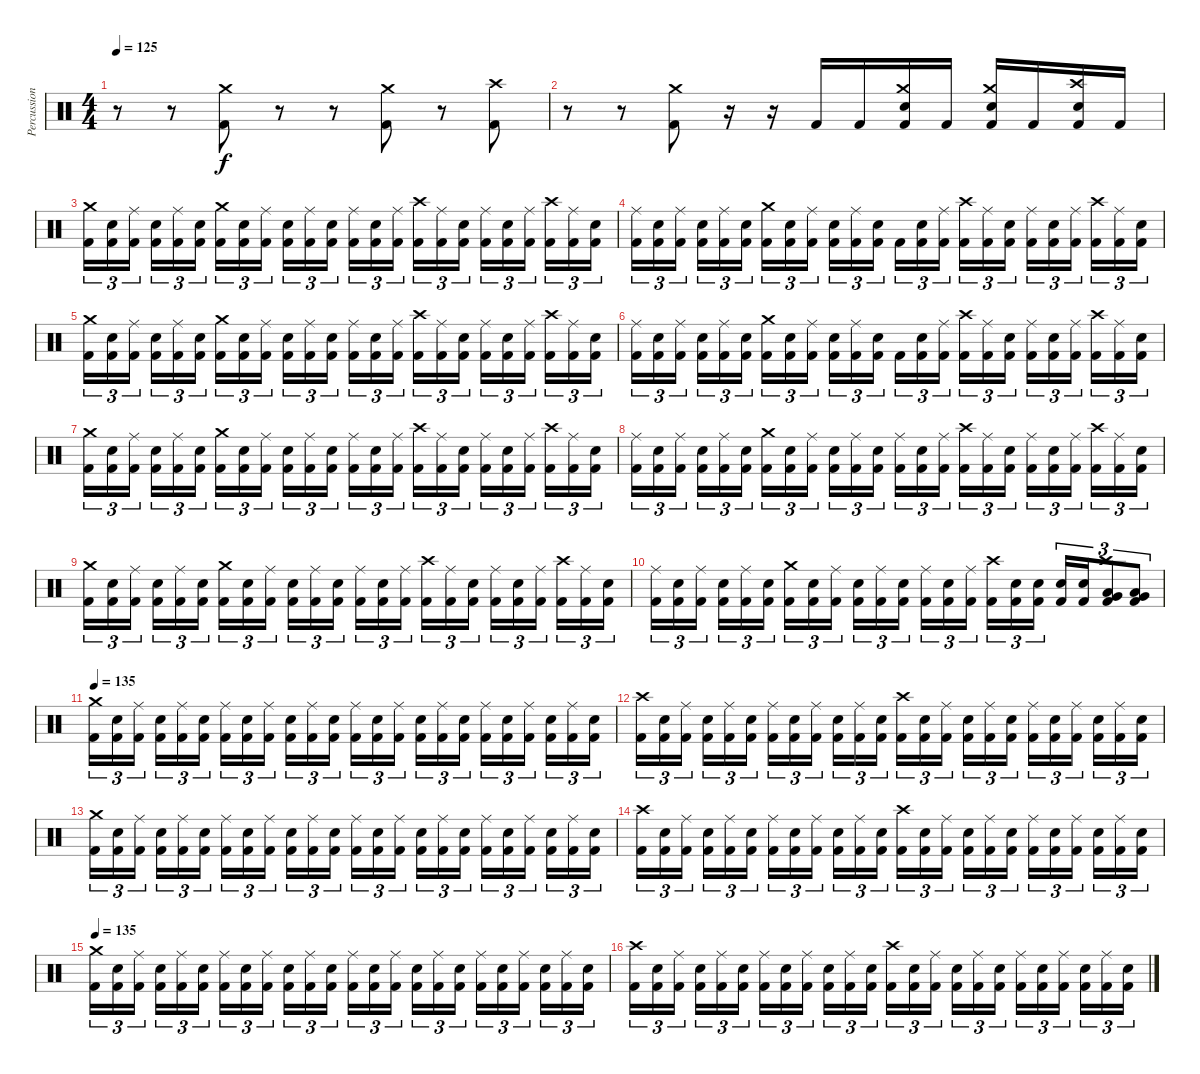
\track ("Percussion" "Percussion") {instrument percussion}
\staff {score}
\articulation defaults
\ts (4 4)
\tempo 125
\clef neutral
\ks c
r.8{dy f} r.8 ("Kick (hit) 2" "Crash medium (hit)").8 r.8 r.8 ("Kick (hit) 2" "Crash medium (hit)").8 r.8 ("Kick (hit) 2" "Crash high (hit)").8 |
r.8 r.8 ("Kick (hit) 2" "Crash medium (hit)").8 r.16 r.16 "Kick (hit) 2".16 "Kick (hit) 2".16 ("Kick (hit) 2" "Electric Snare (hit)" "Crash medium (hit)").16 "Kick (hit) 2".16 ("Kick (hit) 2" "Electric Snare (hit)" "Crash medium (hit)").16 "Kick (hit) 2".16 ("Kick (hit) 2" "Electric Snare (hit)" "Crash high (hit)").16 "Kick (hit) 2".16 |
("Kick (hit) 2" "Crash medium (hit)").16{tu (3 2)} ("Kick (hit) 2" "Electric Snare (hit)").16{tu (3 2)} ("Kick (hit) 2" "Ride (middle)").16{tu (3 2)} ("Kick (hit) 2" "Electric Snare (hit)").16{tu (3 2)} ("Kick (hit) 2" "Ride (middle)").16{tu (3 2)} ("Kick (hit) 2" "Electric Snare (hit)").16{tu (3 2)} ("Kick (hit) 2" "Crash medium (hit)").16{tu (3 2)} ("Kick (hit) 2" "Electric Snare (hit)").16{tu (3 2)} ("Kick (hit) 2" "Ride (middle)").16{tu (3 2)} ("Kick (hit) 2" "Electric Snare (hit)").16{tu (3 2)} ("Kick (hit) 2" "Ride (middle)").16{tu (3 2)} ("Kick (hit) 2" "Electric Snare (hit)").16{tu (3 2)} ("Kick (hit) 2" "Ride (middle)").16{tu (3 2)} ("Kick (hit) 2" "Electric Snare (hit)").16{tu (3 2)} ("Kick (hit) 2" "Ride (middle)").16{tu (3 2)} ("Kick (hit) 2" "Crash high (hit)").16{tu (3 2)} ("Kick (hit) 2" "Ride (middle)").16{tu (3 2)} ("Kick (hit) 2" "Electric Snare (hit)").16{tu (3 2)} ("Kick (hit) 2" "Ride (middle)").16{tu (3 2)} ("Kick (hit) 2" "Electric Snare (hit)").16{tu (3 2)} ("Kick (hit) 2" "Ride (middle)").16{tu (3 2)} ("Kick (hit) 2" "Crash high (hit)").16{tu (3 2)} ("Kick (hit) 2" "Ride (middle)").16{tu (3 2)} ("Kick (hit) 2" "Electric Snare (hit)").16{tu (3 2)} |
("Kick (hit) 2" "Ride (middle)").16{tu (3 2)} ("Kick (hit) 2" "Electric Snare (hit)").16{tu (3 2)} ("Kick (hit) 2" "Ride (middle)").16{tu (3 2)} ("Kick (hit) 2" "Electric Snare (hit)").16{tu (3 2)} ("Kick (hit) 2" "Ride (middle)").16{tu (3 2)} ("Kick (hit) 2" "Electric Snare (hit)").16{tu (3 2)} ("Kick (hit) 2" "Crash medium (hit)").16{tu (3 2)} ("Kick (hit) 2" "Electric Snare (hit)").16{tu (3 2)} ("Kick (hit) 2" "Ride (middle)").16{tu (3 2)} ("Kick (hit) 2" "Electric Snare (hit)").16{tu (3 2)} ("Kick (hit) 2" "Ride (middle)").16{tu (3 2)} ("Kick (hit) 2" "Electric Snare (hit)").16{tu (3 2)} "Kick (hit) 2".16{tu (3 2)} ("Kick (hit) 2" "Electric Snare (hit)").16{tu (3 2)} ("Kick (hit) 2" "Ride (middle)").16{tu (3 2)} ("Kick (hit) 2" "Crash high (hit)").16{tu (3 2)} ("Kick (hit) 2" "Ride (middle)").16{tu (3 2)} ("Kick (hit) 2" "Electric Snare (hit)").16{tu (3 2)} ("Kick (hit) 2" "Ride (middle)").16{tu (3 2)} ("Kick (hit) 2" "Electric Snare (hit)").16{tu (3 2)} ("Kick (hit) 2" "Ride (middle)").16{tu (3 2)} ("Kick (hit) 2" "Crash high (hit)").16{tu (3 2)} ("Kick (hit) 2" "Ride (middle)").16{tu (3 2)} ("Kick (hit) 2" "Electric Snare (hit)").16{tu (3 2)} |
("Kick (hit) 2" "Crash medium (hit)").16{tu (3 2)} ("Kick (hit) 2" "Electric Snare (hit)").16{tu (3 2)} ("Kick (hit) 2" "Ride (middle)").16{tu (3 2)} ("Kick (hit) 2" "Electric Snare (hit)").16{tu (3 2)} ("Kick (hit) 2" "Ride (middle)").16{tu (3 2)} ("Kick (hit) 2" "Electric Snare (hit)").16{tu (3 2)} ("Kick (hit) 2" "Crash medium (hit)").16{tu (3 2)} ("Kick (hit) 2" "Electric Snare (hit)").16{tu (3 2)} ("Kick (hit) 2" "Ride (middle)").16{tu (3 2)} ("Kick (hit) 2" "Electric Snare (hit)").16{tu (3 2)} ("Kick (hit) 2" "Ride (middle)").16{tu (3 2)} ("Kick (hit) 2" "Electric Snare (hit)").16{tu (3 2)} ("Kick (hit) 2" "Ride (middle)").16{tu (3 2)} ("Kick (hit) 2" "Electric Snare (hit)").16{tu (3 2)} ("Kick (hit) 2" "Ride (middle)").16{tu (3 2)} ("Kick (hit) 2" "Crash high (hit)").16{tu (3 2)} ("Kick (hit) 2" "Ride (middle)").16{tu (3 2)} ("Kick (hit) 2" "Electric Snare (hit)").16{tu (3 2)} ("Kick (hit) 2" "Ride (middle)").16{tu (3 2)} ("Kick (hit) 2" "Electric Snare (hit)").16{tu (3 2)} ("Kick (hit) 2" "Ride (middle)").16{tu (3 2)} ("Kick (hit) 2" "Crash high (hit)").16{tu (3 2)} ("Kick (hit) 2" "Ride (middle)").16{tu (3 2)} ("Kick (hit) 2" "Electric Snare (hit)").16{tu (3 2)} |
("Kick (hit) 2" "Ride (middle)").16{tu (3 2)} ("Kick (hit) 2" "Electric Snare (hit)").16{tu (3 2)} ("Kick (hit) 2" "Ride (middle)").16{tu (3 2)} ("Kick (hit) 2" "Electric Snare (hit)").16{tu (3 2)} ("Kick (hit) 2" "Ride (middle)").16{tu (3 2)} ("Kick (hit) 2" "Electric Snare (hit)").16{tu (3 2)} ("Kick (hit) 2" "Crash medium (hit)").16{tu (3 2)} ("Kick (hit) 2" "Electric Snare (hit)").16{tu (3 2)} ("Kick (hit) 2" "Ride (middle)").16{tu (3 2)} ("Kick (hit) 2" "Electric Snare (hit)").16{tu (3 2)} ("Kick (hit) 2" "Ride (middle)").16{tu (3 2)} ("Kick (hit) 2" "Electric Snare (hit)").16{tu (3 2)} "Kick (hit) 2".16{tu (3 2)} ("Kick (hit) 2" "Electric Snare (hit)").16{tu (3 2)} ("Kick (hit) 2" "Ride (middle)").16{tu (3 2)} ("Kick (hit) 2" "Crash high (hit)").16{tu (3 2)} ("Kick (hit) 2" "Ride (middle)").16{tu (3 2)} ("Kick (hit) 2" "Electric Snare (hit)").16{tu (3 2)} ("Kick (hit) 2" "Ride (middle)").16{tu (3 2)} ("Kick (hit) 2" "Electric Snare (hit)").16{tu (3 2)} ("Kick (hit) 2" "Ride (middle)").16{tu (3 2)} ("Kick (hit) 2" "Crash high (hit)").16{tu (3 2)} ("Kick (hit) 2" "Ride (middle)").16{tu (3 2)} ("Kick (hit) 2" "Electric Snare (hit)").16{tu (3 2)} |
("Kick (hit) 2" "Crash medium (hit)").16{tu (3 2)} ("Kick (hit) 2" "Electric Snare (hit)").16{tu (3 2)} ("Kick (hit) 2" "Ride (middle)").16{tu (3 2)} ("Kick (hit) 2" "Electric Snare (hit)").16{tu (3 2)} ("Kick (hit) 2" "Ride (middle)").16{tu (3 2)} ("Kick (hit) 2" "Electric Snare (hit)").16{tu (3 2)} ("Kick (hit) 2" "Crash medium (hit)").16{tu (3 2)} ("Kick (hit) 2" "Electric Snare (hit)").16{tu (3 2)} ("Kick (hit) 2" "Ride (middle)").16{tu (3 2)} ("Kick (hit) 2" "Electric Snare (hit)").16{tu (3 2)} ("Kick (hit) 2" "Ride (middle)").16{tu (3 2)} ("Kick (hit) 2" "Electric Snare (hit)").16{tu (3 2)} ("Kick (hit) 2" "Ride (middle)").16{tu (3 2)} ("Kick (hit) 2" "Electric Snare (hit)").16{tu (3 2)} ("Kick (hit) 2" "Ride (middle)").16{tu (3 2)} ("Kick (hit) 2" "Crash high (hit)").16{tu (3 2)} ("Kick (hit) 2" "Ride (middle)").16{tu (3 2)} ("Kick (hit) 2" "Electric Snare (hit)").16{tu (3 2)} ("Kick (hit) 2" "Ride (middle)").16{tu (3 2)} ("Kick (hit) 2" "Electric Snare (hit)").16{tu (3 2)} ("Kick (hit) 2" "Ride (middle)").16{tu (3 2)} ("Kick (hit) 2" "Crash high (hit)").16{tu (3 2)} ("Kick (hit) 2" "Ride (middle)").16{tu (3 2)} ("Kick (hit) 2" "Electric Snare (hit)").16{tu (3 2)} |
("Kick (hit) 2" "Ride (middle)").16{tu (3 2)} ("Kick (hit) 2" "Electric Snare (hit)").16{tu (3 2)} ("Kick (hit) 2" "Ride (middle)").16{tu (3 2)} ("Kick (hit) 2" "Electric Snare (hit)").16{tu (3 2)} ("Kick (hit) 2" "Ride (middle)").16{tu (3 2)} ("Kick (hit) 2" "Electric Snare (hit)").16{tu (3 2)} ("Kick (hit) 2" "Crash medium (hit)").16{tu (3 2)} ("Kick (hit) 2" "Electric Snare (hit)").16{tu (3 2)} ("Kick (hit) 2" "Ride (middle)").16{tu (3 2)} ("Kick (hit) 2" "Electric Snare (hit)").16{tu (3 2)} ("Kick (hit) 2" "Ride (middle)").16{tu (3 2)} ("Kick (hit) 2" "Electric Snare (hit)").16{tu (3 2)} ("Kick (hit) 2" "Ride (middle)").16{tu (3 2)} ("Kick (hit) 2" "Electric Snare (hit)").16{tu (3 2)} ("Kick (hit) 2" "Ride (middle)").16{tu (3 2)} ("Kick (hit) 2" "Crash high (hit)").16{tu (3 2)} ("Kick (hit) 2" "Ride (middle)").16{tu (3 2)} ("Kick (hit) 2" "Electric Snare (hit)").16{tu (3 2)} ("Kick (hit) 2" "Ride (middle)").16{tu (3 2)} ("Kick (hit) 2" "Electric Snare (hit)").16{tu (3 2)} ("Kick (hit) 2" "Ride (middle)").16{tu (3 2)} ("Kick (hit) 2" "Crash high (hit)").16{tu (3 2)} ("Kick (hit) 2" "Ride (middle)").16{tu (3 2)} ("Kick (hit) 2" "Electric Snare (hit)").16{tu (3 2)} |
("Kick (hit) 2" "Crash medium (hit)").16{tu (3 2)} ("Kick (hit) 2" "Electric Snare (hit)").16{tu (3 2)} ("Kick (hit) 2" "Ride (middle)").16{tu (3 2)} ("Kick (hit) 2" "Electric Snare (hit)").16{tu (3 2)} ("Kick (hit) 2" "Ride (middle)").16{tu (3 2)} ("Kick (hit) 2" "Electric Snare (hit)").16{tu (3 2)} ("Kick (hit) 2" "Crash medium (hit)").16{tu (3 2)} ("Kick (hit) 2" "Electric Snare (hit)").16{tu (3 2)} ("Kick (hit) 2" "Ride (middle)").16{tu (3 2)} ("Kick (hit) 2" "Electric Snare (hit)").16{tu (3 2)} ("Kick (hit) 2" "Ride (middle)").16{tu (3 2)} ("Kick (hit) 2" "Electric Snare (hit)").16{tu (3 2)} ("Kick (hit) 2" "Ride (middle)").16{tu (3 2)} ("Kick (hit) 2" "Electric Snare (hit)").16{tu (3 2)} ("Kick (hit) 2" "Ride (middle)").16{tu (3 2)} ("Kick (hit) 2" "Crash high (hit)").16{tu (3 2)} ("Kick (hit) 2" "Ride (middle)").16{tu (3 2)} ("Kick (hit) 2" "Electric Snare (hit)").16{tu (3 2)} ("Kick (hit) 2" "Ride (middle)").16{tu (3 2)} ("Kick (hit) 2" "Electric Snare (hit)").16{tu (3 2)} ("Kick (hit) 2" "Ride (middle)").16{tu (3 2)} ("Kick (hit) 2" "Crash high (hit)").16{tu (3 2)} ("Kick (hit) 2" "Ride (middle)").16{tu (3 2)} ("Kick (hit) 2" "Electric Snare (hit)").16{tu (3 2)} |
("Kick (hit) 2" "Ride (middle)").16{tu (3 2)} ("Kick (hit) 2" "Electric Snare (hit)").16{tu (3 2)} ("Kick (hit) 2" "Ride (middle)").16{tu (3 2)} ("Kick (hit) 2" "Electric Snare (hit)").16{tu (3 2)} ("Kick (hit) 2" "Ride (middle)").16{tu (3 2)} ("Kick (hit) 2" "Electric Snare (hit)").16{tu (3 2)} ("Kick (hit) 2" "Crash medium (hit)").16{tu (3 2)} ("Kick (hit) 2" "Electric Snare (hit)").16{tu (3 2)} ("Kick (hit) 2" "Ride (middle)").16{tu (3 2)} ("Kick (hit) 2" "Electric Snare (hit)").16{tu (3 2)} ("Kick (hit) 2" "Ride (middle)").16{tu (3 2)} ("Kick (hit) 2" "Electric Snare (hit)").16{tu (3 2)} ("Kick (hit) 2" "Ride (middle)").16{tu (3 2)} ("Kick (hit) 2" "Electric Snare (hit)").16{tu (3 2)} ("Kick (hit) 2" "Ride (middle)").16{tu (3 2)} ("Kick (hit) 2" "Crash high (hit)").16{tu (3 2)} ("Kick (hit) 2" "Electric Snare (hit)").16{tu (3 2)} ("Kick (hit) 2" "Electric Snare (hit)").16{tu (3 2)} ("Kick (hit) 2" "Electric Snare (hit)").16{tu (3 2)} ("Kick (hit) 2" "Electric Snare (hit)").16{tu (3 2)} ("Kick (hit) 2" "Low Tom (hit)" "Very Low Tom (hit)" "Crash high (hit)").8{tu (3 2)} ("Kick (hit) 2" "Low Tom (hit)" "Very Low Tom (hit)").8{tu (3 2)} |
\tempo 135
("Kick (hit) 2" "Crash medium (hit)").16{tu (3 2)} ("Kick (hit) 2" "Electric Snare (hit)").16{tu (3 2)} ("Kick (hit) 2" "Ride (middle)").16{tu (3 2)} ("Kick (hit) 2" "Electric Snare (hit)").16{tu (3 2)} ("Kick (hit) 2" "Ride (middle)").16{tu (3 2)} ("Kick (hit) 2" "Electric Snare (hit)").16{tu (3 2)} ("Kick (hit) 2" "Ride (middle)").16{tu (3 2)} ("Kick (hit) 2" "Electric Snare (hit)").16{tu (3 2)} ("Kick (hit) 2" "Ride (middle)").16{tu (3 2)} ("Kick (hit) 2" "Electric Snare (hit)").16{tu (3 2)} ("Kick (hit) 2" "Ride (middle)").16{tu (3 2)} ("Kick (hit) 2" "Electric Snare (hit)").16{tu (3 2)} ("Kick (hit) 2" "Ride (middle)").16{tu (3 2)} ("Kick (hit) 2" "Electric Snare (hit)").16{tu (3 2)} ("Kick (hit) 2" "Ride (middle)").16{tu (3 2)} ("Kick (hit) 2" "Electric Snare (hit)").16{tu (3 2)} ("Kick (hit) 2" "Ride (middle)").16{tu (3 2)} ("Kick (hit) 2" "Electric Snare (hit)").16{tu (3 2)} ("Kick (hit) 2" "Ride (middle)").16{tu (3 2)} ("Kick (hit) 2" "Electric Snare (hit)").16{tu (3 2)} ("Kick (hit) 2" "Ride (middle)").16{tu (3 2)} ("Kick (hit) 2" "Electric Snare (hit)").16{tu (3 2)} ("Kick (hit) 2" "Ride (middle)").16{tu (3 2)} ("Kick (hit) 2" "Electric Snare (hit)").16{tu (3 2)} |
("Kick (hit) 2" "Crash high (hit)").16{tu (3 2)} ("Kick (hit) 2" "Electric Snare (hit)").16{tu (3 2)} ("Kick (hit) 2" "Ride (middle)").16{tu (3 2)} ("Kick (hit) 2" "Electric Snare (hit)").16{tu (3 2)} ("Kick (hit) 2" "Ride (middle)").16{tu (3 2)} ("Kick (hit) 2" "Electric Snare (hit)").16{tu (3 2)} ("Kick (hit) 2" "Ride (middle)").16{tu (3 2)} ("Kick (hit) 2" "Electric Snare (hit)").16{tu (3 2)} ("Kick (hit) 2" "Ride (middle)").16{tu (3 2)} ("Kick (hit) 2" "Electric Snare (hit)").16{tu (3 2)} ("Kick (hit) 2" "Ride (middle)").16{tu (3 2)} ("Kick (hit) 2" "Electric Snare (hit)").16{tu (3 2)} ("Kick (hit) 2" "Crash high (hit)").16{tu (3 2)} ("Kick (hit) 2" "Electric Snare (hit)").16{tu (3 2)} ("Kick (hit) 2" "Ride (middle)").16{tu (3 2)} ("Kick (hit) 2" "Electric Snare (hit)").16{tu (3 2)} ("Kick (hit) 2" "Ride (middle)").16{tu (3 2)} ("Kick (hit) 2" "Electric Snare (hit)").16{tu (3 2)} ("Kick (hit) 2" "Ride (middle)").16{tu (3 2)} ("Kick (hit) 2" "Electric Snare (hit)").16{tu (3 2)} ("Kick (hit) 2" "Ride (middle)").16{tu (3 2)} ("Kick (hit) 2" "Electric Snare (hit)").16{tu (3 2)} ("Kick (hit) 2" "Ride (middle)").16{tu (3 2)} ("Kick (hit) 2" "Electric Snare (hit)").16{tu (3 2)} |
("Kick (hit) 2" "Crash medium (hit)").16{tu (3 2)} ("Kick (hit) 2" "Electric Snare (hit)").16{tu (3 2)} ("Kick (hit) 2" "Ride (middle)").16{tu (3 2)} ("Kick (hit) 2" "Electric Snare (hit)").16{tu (3 2)} ("Kick (hit) 2" "Ride (middle)").16{tu (3 2)} ("Kick (hit) 2" "Electric Snare (hit)").16{tu (3 2)} ("Kick (hit) 2" "Ride (middle)").16{tu (3 2)} ("Kick (hit) 2" "Electric Snare (hit)").16{tu (3 2)} ("Kick (hit) 2" "Ride (middle)").16{tu (3 2)} ("Kick (hit) 2" "Electric Snare (hit)").16{tu (3 2)} ("Kick (hit) 2" "Ride (middle)").16{tu (3 2)} ("Kick (hit) 2" "Electric Snare (hit)").16{tu (3 2)} ("Kick (hit) 2" "Ride (middle)").16{tu (3 2)} ("Kick (hit) 2" "Electric Snare (hit)").16{tu (3 2)} ("Kick (hit) 2" "Ride (middle)").16{tu (3 2)} ("Kick (hit) 2" "Electric Snare (hit)").16{tu (3 2)} ("Kick (hit) 2" "Ride (middle)").16{tu (3 2)} ("Kick (hit) 2" "Electric Snare (hit)").16{tu (3 2)} ("Kick (hit) 2" "Ride (middle)").16{tu (3 2)} ("Kick (hit) 2" "Electric Snare (hit)").16{tu (3 2)} ("Kick (hit) 2" "Ride (middle)").16{tu (3 2)} ("Kick (hit) 2" "Electric Snare (hit)").16{tu (3 2)} ("Kick (hit) 2" "Ride (middle)").16{tu (3 2)} ("Kick (hit) 2" "Electric Snare (hit)").16{tu (3 2)} |
("Kick (hit) 2" "Crash high (hit)").16{tu (3 2)} ("Kick (hit) 2" "Electric Snare (hit)").16{tu (3 2)} ("Kick (hit) 2" "Ride (middle)").16{tu (3 2)} ("Kick (hit) 2" "Electric Snare (hit)").16{tu (3 2)} ("Kick (hit) 2" "Ride (middle)").16{tu (3 2)} ("Kick (hit) 2" "Electric Snare (hit)").16{tu (3 2)} ("Kick (hit) 2" "Ride (middle)").16{tu (3 2)} ("Kick (hit) 2" "Electric Snare (hit)").16{tu (3 2)} ("Kick (hit) 2" "Ride (middle)").16{tu (3 2)} ("Kick (hit) 2" "Electric Snare (hit)").16{tu (3 2)} ("Kick (hit) 2" "Ride (middle)").16{tu (3 2)} ("Kick (hit) 2" "Electric Snare (hit)").16{tu (3 2)} ("Kick (hit) 2" "Crash high (hit)").16{tu (3 2)} ("Kick (hit) 2" "Electric Snare (hit)").16{tu (3 2)} ("Kick (hit) 2" "Ride (middle)").16{tu (3 2)} ("Kick (hit) 2" "Electric Snare (hit)").16{tu (3 2)} ("Kick (hit) 2" "Ride (middle)").16{tu (3 2)} ("Kick (hit) 2" "Electric Snare (hit)").16{tu (3 2)} ("Kick (hit) 2" "Ride (middle)").16{tu (3 2)} ("Kick (hit) 2" "Electric Snare (hit)").16{tu (3 2)} ("Kick (hit) 2" "Ride (middle)").16{tu (3 2)} ("Kick (hit) 2" "Electric Snare (hit)").16{tu (3 2)} ("Kick (hit) 2" "Ride (middle)").16{tu (3 2)} ("Kick (hit) 2" "Electric Snare (hit)").16{tu (3 2)} |
\tempo 135
("Kick (hit) 2" "Crash medium (hit)").16{tu (3 2)} ("Kick (hit) 2" "Electric Snare (hit)").16{tu (3 2)} ("Kick (hit) 2" "Ride (middle)").16{tu (3 2)} ("Kick (hit) 2" "Electric Snare (hit)").16{tu (3 2)} ("Kick (hit) 2" "Ride (middle)").16{tu (3 2)} ("Kick (hit) 2" "Electric Snare (hit)").16{tu (3 2)} ("Kick (hit) 2" "Ride (middle)").16{tu (3 2)} ("Kick (hit) 2" "Electric Snare (hit)").16{tu (3 2)} ("Kick (hit) 2" "Ride (middle)").16{tu (3 2)} ("Kick (hit) 2" "Electric Snare (hit)").16{tu (3 2)} ("Kick (hit) 2" "Ride (middle)").16{tu (3 2)} ("Kick (hit) 2" "Electric Snare (hit)").16{tu (3 2)} ("Kick (hit) 2" "Ride (middle)").16{tu (3 2)} ("Kick (hit) 2" "Electric Snare (hit)").16{tu (3 2)} ("Kick (hit) 2" "Ride (middle)").16{tu (3 2)} ("Kick (hit) 2" "Electric Snare (hit)").16{tu (3 2)} ("Kick (hit) 2" "Ride (middle)").16{tu (3 2)} ("Kick (hit) 2" "Electric Snare (hit)").16{tu (3 2)} ("Kick (hit) 2" "Ride (middle)").16{tu (3 2)} ("Kick (hit) 2" "Electric Snare (hit)").16{tu (3 2)} ("Kick (hit) 2" "Ride (middle)").16{tu (3 2)} ("Kick (hit) 2" "Electric Snare (hit)").16{tu (3 2)} ("Kick (hit) 2" "Ride (middle)").16{tu (3 2)} ("Kick (hit) 2" "Electric Snare (hit)").16{tu (3 2)} |
("Kick (hit) 2" "Crash high (hit)").16{tu (3 2)} ("Kick (hit) 2" "Electric Snare (hit)").16{tu (3 2)} ("Kick (hit) 2" "Ride (middle)").16{tu (3 2)} ("Kick (hit) 2" "Electric Snare (hit)").16{tu (3 2)} ("Kick (hit) 2" "Ride (middle)").16{tu (3 2)} ("Kick (hit) 2" "Electric Snare (hit)").16{tu (3 2)} ("Kick (hit) 2" "Ride (middle)").16{tu (3 2)} ("Kick (hit) 2" "Electric Snare (hit)").16{tu (3 2)} ("Kick (hit) 2" "Ride (middle)").16{tu (3 2)} ("Kick (hit) 2" "Electric Snare (hit)").16{tu (3 2)} ("Kick (hit) 2" "Ride (middle)").16{tu (3 2)} ("Kick (hit) 2" "Electric Snare (hit)").16{tu (3 2)} ("Kick (hit) 2" "Crash high (hit)").16{tu (3 2)} ("Kick (hit) 2" "Electric Snare (hit)").16{tu (3 2)} ("Kick (hit) 2" "Ride (middle)").16{tu (3 2)} ("Kick (hit) 2" "Electric Snare (hit)").16{tu (3 2)} ("Kick (hit) 2" "Ride (middle)").16{tu (3 2)} ("Kick (hit) 2" "Electric Snare (hit)").16{tu (3 2)} ("Kick (hit) 2" "Ride (middle)").16{tu (3 2)} ("Kick (hit) 2" "Electric Snare (hit)").16{tu (3 2)} ("Kick (hit) 2" "Ride (middle)").16{tu (3 2)} ("Kick (hit) 2" "Electric Snare (hit)").16{tu (3 2)} ("Kick (hit) 2" "Ride (middle)").16{tu (3 2)} ("Kick (hit) 2" "Electric Snare (hit)").16{tu (3 2)}
